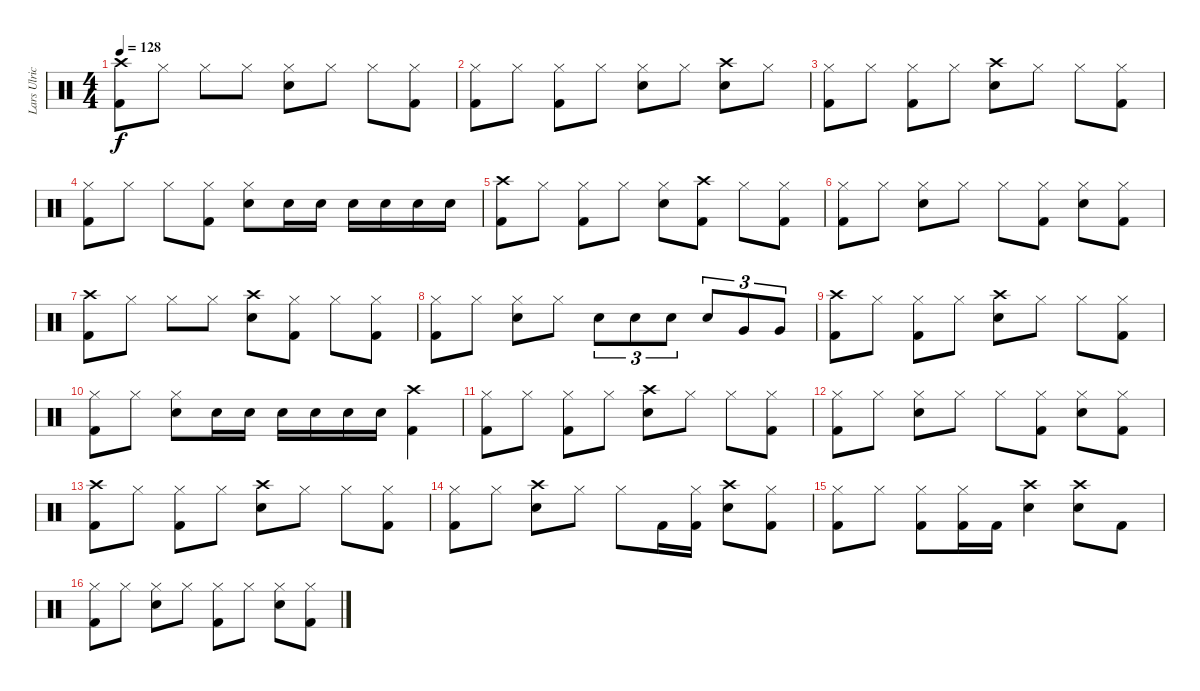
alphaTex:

\track ("Lars Ulrich" "Lars Ulric") {instrument percussion}
\staff {score}
\articulation defaults
\ts (4 4)
\tempo 128
\clef neutral
\ks c
("Crash high (hit)" "Kick (hit) 2").8{dy f} "Hi-Hat (closed)".8 "Hi-Hat (closed)".8 "Hi-Hat (closed)".8 ("Hi-Hat (closed)" "Electric Snare (hit)").8 "Hi-Hat (closed)".8 "Hi-Hat (closed)".8 ("Hi-Hat (closed)" "Kick (hit) 2").8 |
("Hi-Hat (closed)" "Kick (hit) 2").8 "Hi-Hat (closed)".8 ("Hi-Hat (closed)" "Kick (hit) 2").8 "Hi-Hat (closed)".8 ("Hi-Hat (closed)" "Electric Snare (hit)").8 "Hi-Hat (closed)".8 ("Crash high (hit)" "Electric Snare (hit)").8 "Hi-Hat (closed)".8 |
("Hi-Hat (closed)" "Kick (hit) 2").8 "Hi-Hat (closed)".8 ("Hi-Hat (closed)" "Kick (hit) 2").8 "Hi-Hat (closed)".8 ("Crash high (hit)" "Electric Snare (hit)").8 "Hi-Hat (closed)".8 "Hi-Hat (closed)".8 ("Hi-Hat (closed)" "Kick (hit) 2").8 |
("Hi-Hat (closed)" "Kick (hit) 2").8 "Hi-Hat (closed)".8 "Hi-Hat (closed)".8 ("Hi-Hat (closed)" "Kick (hit) 2").8 ("Hi-Hat (closed)" "Electric Snare (hit)").8 "Electric Snare (hit)".16 "Electric Snare (hit)".16 "Electric Snare (hit)".16 "Electric Snare (hit)".16 "Electric Snare (hit)".16 "Electric Snare (hit)".16 |
("Crash high (hit)" "Kick (hit) 2").8 "Hi-Hat (closed)".8 ("Hi-Hat (closed)" "Kick (hit) 2").8 "Hi-Hat (closed)".8 ("Hi-Hat (closed)" "Electric Snare (hit)").8 ("Crash high (hit)" "Kick (hit) 2").8 "Hi-Hat (closed)".8 ("Hi-Hat (closed)" "Kick (hit) 2").8 |
("Hi-Hat (closed)" "Kick (hit) 2").8 "Hi-Hat (closed)".8 ("Hi-Hat (closed)" "Electric Snare (hit)").8 "Hi-Hat (closed)".8 "Hi-Hat (closed)".8 ("Hi-Hat (closed)" "Kick (hit) 2").8 ("Hi-Hat (closed)" "Electric Snare (hit)").8 ("Hi-Hat (closed)" "Kick (hit) 2").8 |
("Crash high (hit)" "Kick (hit) 2").8 "Hi-Hat (closed)".8 "Hi-Hat (closed)".8 "Hi-Hat (closed)".8 ("Crash high (hit)" "Electric Snare (hit)").8 ("Hi-Hat (closed)" "Kick (hit) 2").8 "Hi-Hat (closed)".8 ("Hi-Hat (closed)" "Kick (hit) 2").8 |
("Hi-Hat (closed)" "Kick (hit) 2").8 "Hi-Hat (closed)".8 ("Hi-Hat (closed)" "Electric Snare (hit)").8 "Hi-Hat (closed)".8 "Electric Snare (hit)".8{tu (3 2)} "Electric Snare (hit)".8{tu (3 2)} "Electric Snare (hit)".8{tu (3 2)} "Electric Snare (hit)".8{tu (3 2)} "Very Low Tom (hit)".8{tu (3 2)} "Very Low Tom (hit)".8{tu (3 2)} |
("Crash high (hit)" "Kick (hit) 2").8 "Hi-Hat (closed)".8 ("Hi-Hat (closed)" "Kick (hit) 2").8 "Hi-Hat (closed)".8 ("Crash high (hit)" "Electric Snare (hit)").8 "Hi-Hat (closed)".8 "Hi-Hat (closed)".8 ("Hi-Hat (closed)" "Kick (hit) 2").8 |
("Hi-Hat (closed)" "Kick (hit) 2").8 "Hi-Hat (closed)".8 ("Hi-Hat (closed)" "Electric Snare (hit)").8 "Electric Snare (hit)".16 "Electric Snare (hit)".16 "Electric Snare (hit)".16 "Electric Snare (hit)".16 "Electric Snare (hit)".16 "Electric Snare (hit)".16 ("Crash high (hit)" "Kick (hit) 2").4 |
("Hi-Hat (closed)" "Kick (hit) 2").8 "Hi-Hat (closed)".8 ("Hi-Hat (closed)" "Kick (hit) 2").8 "Hi-Hat (closed)".8 ("Crash high (hit)" "Electric Snare (hit)").8 "Hi-Hat (closed)".8 "Hi-Hat (closed)".8 ("Hi-Hat (closed)" "Kick (hit) 2").8 |
("Hi-Hat (closed)" "Kick (hit) 2").8 "Hi-Hat (closed)".8 ("Hi-Hat (closed)" "Electric Snare (hit)").8 "Hi-Hat (closed)".8 "Hi-Hat (closed)".8 ("Hi-Hat (closed)" "Kick (hit) 2").8 ("Hi-Hat (closed)" "Electric Snare (hit)").8 ("Hi-Hat (closed)" "Kick (hit) 2").8 |
("Crash high (hit)" "Kick (hit) 2").8 "Hi-Hat (closed)".8 ("Hi-Hat (closed)" "Kick (hit) 2").8 "Hi-Hat (closed)".8 ("Crash high (hit)" "Electric Snare (hit)").8 "Hi-Hat (closed)".8 "Hi-Hat (closed)".8 ("Hi-Hat (closed)" "Kick (hit) 2").8 |
("Hi-Hat (closed)" "Kick (hit) 2").8 "Hi-Hat (closed)".8 ("Crash high (hit)" "Electric Snare (hit)").8 "Hi-Hat (closed)".8 "Hi-Hat (closed)".8 "Kick (hit) 2".16 ("Hi-Hat (closed)" "Kick (hit) 2").16 ("Crash high (hit)" "Electric Snare (hit)").8 ("Hi-Hat (closed)" "Kick (hit) 2").8 |
("Hi-Hat (closed)" "Kick (hit) 2").8 "Hi-Hat (closed)".8 ("Hi-Hat (closed)" "Kick (hit) 2").8 ("Hi-Hat (closed)" "Kick (hit) 2").16 "Kick (hit) 2".16 ("Crash high (hit)" "Electric Snare (hit)").4 ("Crash high (hit)" "Electric Snare (hit)").8 "Kick (hit) 2".8 |
("Hi-Hat (closed)" "Kick (hit) 2").8 "Hi-Hat (closed)".8 ("Hi-Hat (closed)" "Electric Snare (hit)").8 "Hi-Hat (closed)".8 ("Hi-Hat (closed)" "Kick (hit) 2").8 "Hi-Hat (closed)".8 ("Hi-Hat (closed)" "Electric Snare (hit)").8 ("Hi-Hat (closed)" "Kick (hit) 2").8
